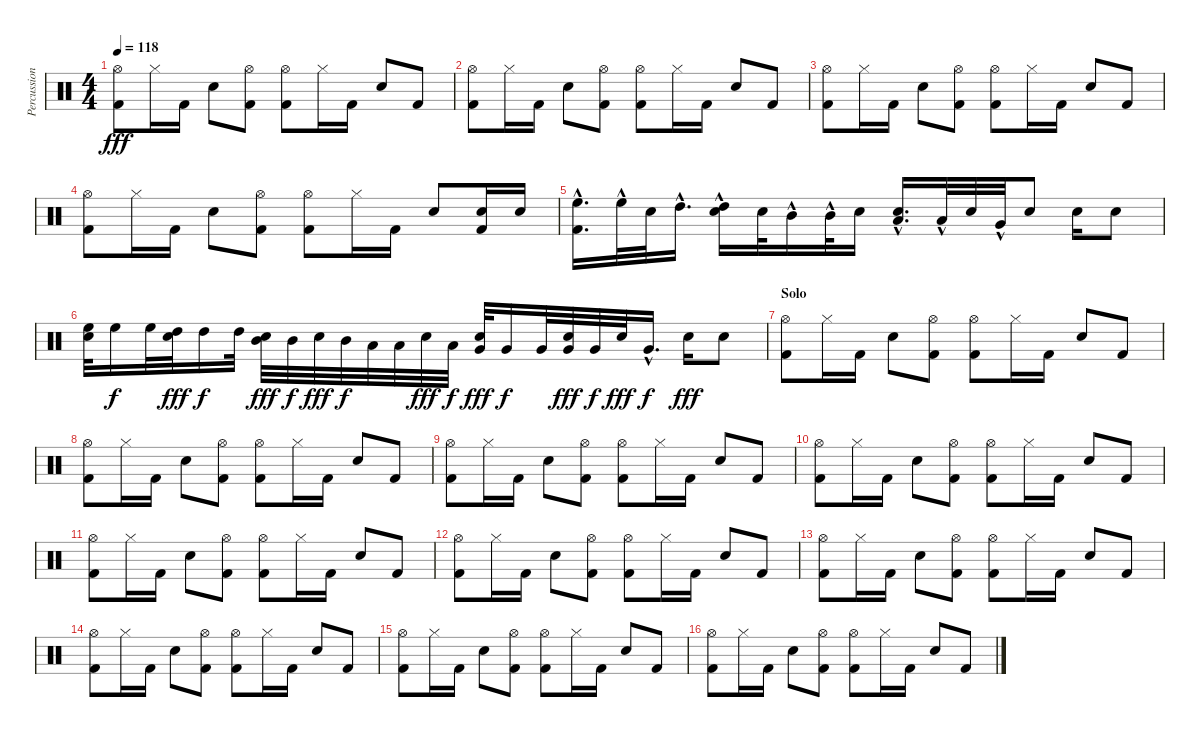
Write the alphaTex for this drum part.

\track ("Percussion" "Percussion") {instrument percussion}
\staff {score}
\articulation defaults
\ts (4 4)
\tempo 118
\clef neutral
\ks c
("Hi-Hat (open)" "Kick (hit) 2").8{dy fff} "Hi-Hat (closed)".16 "Kick (hit) 2".16 "Electric Snare (hit)".8 ("Hi-Hat (open)" "Kick (hit) 2").8 ("Hi-Hat (open)" "Kick (hit) 2").8 "Hi-Hat (closed)".16 "Kick (hit) 2".16 "Electric Snare (hit)".8 "Kick (hit) 2".8 |
("Hi-Hat (open)" "Kick (hit) 2").8 "Hi-Hat (closed)".16 "Kick (hit) 2".16 "Electric Snare (hit)".8 ("Hi-Hat (open)" "Kick (hit) 2").8 ("Hi-Hat (open)" "Kick (hit) 2").8 "Hi-Hat (closed)".16 "Kick (hit) 2".16 "Electric Snare (hit)".8 "Kick (hit) 2".8 |
("Hi-Hat (open)" "Kick (hit) 2").8 "Hi-Hat (closed)".16 "Kick (hit) 2".16 "Electric Snare (hit)".8 ("Hi-Hat (open)" "Kick (hit) 2").8 ("Hi-Hat (open)" "Kick (hit) 2").8 "Hi-Hat (closed)".16 "Kick (hit) 2".16 "Electric Snare (hit)".8 "Kick (hit) 2".8 |
("Hi-Hat (open)" "Kick (hit) 2").8 "Hi-Hat (closed)".16 "Kick (hit) 2".16 "Electric Snare (hit)".8 ("Hi-Hat (open)" "Kick (hit) 2").8 ("Hi-Hat (open)" "Kick (hit) 2").8 "Hi-Hat (closed)".16 "Kick (hit) 2".16 "Electric Snare (hit)".8 ("Kick (hit) 2" "Electric Snare (hit)").16 "Electric Snare (hit)".16 |
("High Floor Tom (hit)"{hac} "Kick (hit) 2").16{d} "High Floor Tom (hit)"{hac}.32 "Electric Snare (hit)".32 "High Tom (hit)"{hac}.16{d} ("High Tom (hit)"{hac} "Electric Snare (hit)").16 "Electric Snare (hit)".32 "Mid Tom (hit)"{hac}.16 "Mid Tom (hit)"{hac}.32 "Electric Snare (hit)".16 ("Low Tom (hit)"{hac} "Electric Snare (hit)").16{d} "Low Tom (hit)"{hac}.32 "Electric Snare (hit)".32 "Very Low Tom (hit)"{hac}.32 "Electric Snare (hit)".8 "Electric Snare (hit)".16 "Electric Snare (hit)".8 |
("High Floor Tom (hit)" "Electric Snare (hit)").32 "High Floor Tom (hit)".16{dy f} "High Floor Tom (hit)".32 ("High Tom (hit)" "Electric Snare (hit)").32{dy fff} "High Tom (hit)".16{dy f} "High Tom (hit)".32 ("Mid Tom (hit)" "Electric Snare (hit)").32{dy fff} "Mid Tom (hit)".32{dy f} "Electric Snare (hit)".32{dy fff} "Mid Tom (hit)".32{dy f} "Low Tom (hit)".32 "Low Tom (hit)".32 "Electric Snare (hit)".32{dy fff} "Low Tom (hit)".32{dy f} ("Very Low Tom (hit)" "Electric Snare (hit)").32{dy fff} "Very Low Tom (hit)".16{dy f} "Very Low Tom (hit)".32 ("Very Low Tom (hit)" "Electric Snare (hit)").32{dy fff} "Very Low Tom (hit)".32{dy f} "Electric Snare (hit)".32{dy fff} "Very Low Tom (hit)"{hac}.16{d dy f} "Electric Snare (hit)".16{dy fff} "Electric Snare (hit)".8 |
\section ("" "Solo")
("Hi-Hat (open)" "Kick (hit) 2").8 "Hi-Hat (closed)".16 "Kick (hit) 2".16 "Electric Snare (hit)".8 ("Hi-Hat (open)" "Kick (hit) 2").8 ("Hi-Hat (open)" "Kick (hit) 2").8 "Hi-Hat (closed)".16 "Kick (hit) 2".16 "Electric Snare (hit)".8 "Kick (hit) 2".8 |
("Hi-Hat (open)" "Kick (hit) 2").8 "Hi-Hat (closed)".16 "Kick (hit) 2".16 "Electric Snare (hit)".8 ("Hi-Hat (open)" "Kick (hit) 2").8 ("Hi-Hat (open)" "Kick (hit) 2").8 "Hi-Hat (closed)".16 "Kick (hit) 2".16 "Electric Snare (hit)".8 "Kick (hit) 2".8 |
("Hi-Hat (open)" "Kick (hit) 2").8 "Hi-Hat (closed)".16 "Kick (hit) 2".16 "Electric Snare (hit)".8 ("Hi-Hat (open)" "Kick (hit) 2").8 ("Hi-Hat (open)" "Kick (hit) 2").8 "Hi-Hat (closed)".16 "Kick (hit) 2".16 "Electric Snare (hit)".8 "Kick (hit) 2".8 |
("Hi-Hat (open)" "Kick (hit) 2").8 "Hi-Hat (closed)".16 "Kick (hit) 2".16 "Electric Snare (hit)".8 ("Hi-Hat (open)" "Kick (hit) 2").8 ("Hi-Hat (open)" "Kick (hit) 2").8 "Hi-Hat (closed)".16 "Kick (hit) 2".16 "Electric Snare (hit)".8 "Kick (hit) 2".8 |
("Hi-Hat (open)" "Kick (hit) 2").8 "Hi-Hat (closed)".16 "Kick (hit) 2".16 "Electric Snare (hit)".8 ("Hi-Hat (open)" "Kick (hit) 2").8 ("Hi-Hat (open)" "Kick (hit) 2").8 "Hi-Hat (closed)".16 "Kick (hit) 2".16 "Electric Snare (hit)".8 "Kick (hit) 2".8 |
("Hi-Hat (open)" "Kick (hit) 2").8 "Hi-Hat (closed)".16 "Kick (hit) 2".16 "Electric Snare (hit)".8 ("Hi-Hat (open)" "Kick (hit) 2").8 ("Hi-Hat (open)" "Kick (hit) 2").8 "Hi-Hat (closed)".16 "Kick (hit) 2".16 "Electric Snare (hit)".8 "Kick (hit) 2".8 |
("Hi-Hat (open)" "Kick (hit) 2").8 "Hi-Hat (closed)".16 "Kick (hit) 2".16 "Electric Snare (hit)".8 ("Hi-Hat (open)" "Kick (hit) 2").8 ("Hi-Hat (open)" "Kick (hit) 2").8 "Hi-Hat (closed)".16 "Kick (hit) 2".16 "Electric Snare (hit)".8 "Kick (hit) 2".8 |
("Hi-Hat (open)" "Kick (hit) 2").8 "Hi-Hat (closed)".16 "Kick (hit) 2".16 "Electric Snare (hit)".8 ("Hi-Hat (open)" "Kick (hit) 2").8 ("Hi-Hat (open)" "Kick (hit) 2").8 "Hi-Hat (closed)".16 "Kick (hit) 2".16 "Electric Snare (hit)".8 "Kick (hit) 2".8 |
("Hi-Hat (open)" "Kick (hit) 2").8 "Hi-Hat (closed)".16 "Kick (hit) 2".16 "Electric Snare (hit)".8 ("Hi-Hat (open)" "Kick (hit) 2").8 ("Hi-Hat (open)" "Kick (hit) 2").8 "Hi-Hat (closed)".16 "Kick (hit) 2".16 "Electric Snare (hit)".8 "Kick (hit) 2".8 |
("Hi-Hat (open)" "Kick (hit) 2").8 "Hi-Hat (closed)".16 "Kick (hit) 2".16 "Electric Snare (hit)".8 ("Hi-Hat (open)" "Kick (hit) 2").8 ("Hi-Hat (open)" "Kick (hit) 2").8 "Hi-Hat (closed)".16 "Kick (hit) 2".16 "Electric Snare (hit)".8 "Kick (hit) 2".8
